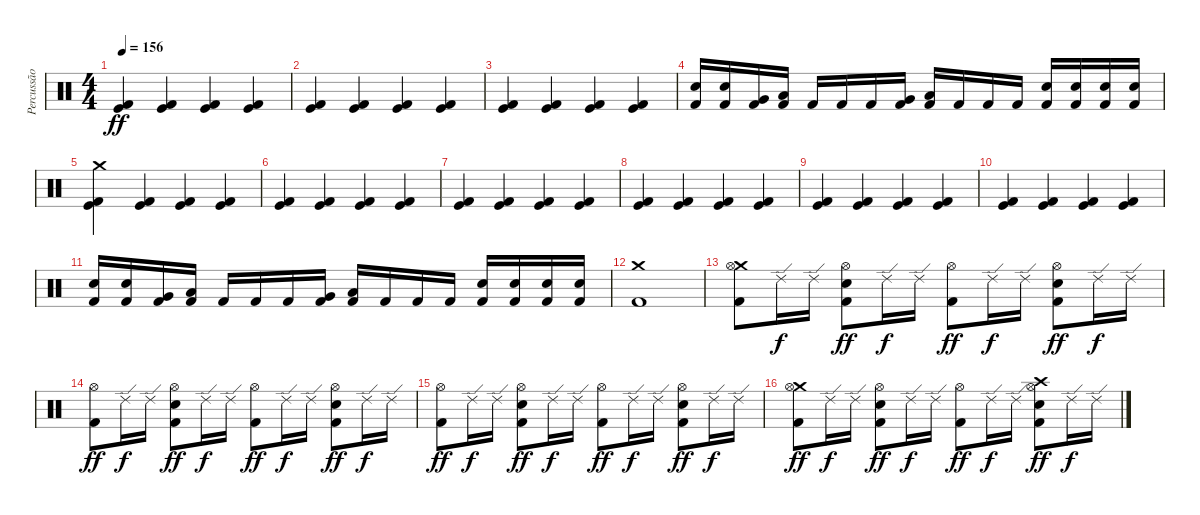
\track ("Percussão" "Percussão") {instrument percussion}
\staff {score}
\articulation defaults
\ts (4 4)
\tempo 156
\clef neutral
\ks c
("Kick (hit)" "Kick (hit) 2").4{dy ff} ("Kick (hit)" "Kick (hit) 2").4 ("Kick (hit)" "Kick (hit) 2").4 ("Kick (hit)" "Kick (hit) 2").4 |
("Kick (hit)" "Kick (hit) 2").4 ("Kick (hit)" "Kick (hit) 2").4 ("Kick (hit)" "Kick (hit) 2").4 ("Kick (hit)" "Kick (hit) 2").4 |
("Kick (hit)" "Kick (hit) 2").4 ("Kick (hit)" "Kick (hit) 2").4 ("Kick (hit)" "Kick (hit) 2").4 ("Kick (hit)" "Kick (hit) 2").4 |
("Snare (hit) 2" "Kick (hit) 2").16 ("Snare (hit) 2" "Kick (hit) 2").16 ("Very Low Tom (hit)" "Kick (hit) 2").16 ("Low Floor Tom (hit)" "Kick (hit) 2").16 "Kick (hit) 2".16 "Kick (hit) 2".16 "Kick (hit) 2".16 ("Very Low Tom (hit)" "Kick (hit) 2").16 ("Low Floor Tom (hit)" "Kick (hit) 2").16 "Kick (hit) 2".16 "Kick (hit) 2".16 "Kick (hit) 2".16 ("Snare (hit) 2" "Kick (hit) 2").16 ("Snare (hit) 2" "Kick (hit) 2").16 ("Snare (hit) 2" "Kick (hit) 2").16 ("Snare (hit) 2" "Kick (hit) 2").16 |
("Crash medium (hit)" "Kick (hit)" "Kick (hit) 2").4 ("Kick (hit)" "Kick (hit) 2").4 ("Kick (hit)" "Kick (hit) 2").4 ("Kick (hit)" "Kick (hit) 2").4 |
("Kick (hit)" "Kick (hit) 2").4 ("Kick (hit)" "Kick (hit) 2").4 ("Kick (hit)" "Kick (hit) 2").4 ("Kick (hit)" "Kick (hit) 2").4 |
("Kick (hit)" "Kick (hit) 2").4 ("Kick (hit)" "Kick (hit) 2").4 ("Kick (hit)" "Kick (hit) 2").4 ("Kick (hit)" "Kick (hit) 2").4 |
("Kick (hit)" "Kick (hit) 2").4 ("Kick (hit)" "Kick (hit) 2").4 ("Kick (hit)" "Kick (hit) 2").4 ("Kick (hit)" "Kick (hit) 2").4 |
("Kick (hit)" "Kick (hit) 2").4 ("Kick (hit)" "Kick (hit) 2").4 ("Kick (hit)" "Kick (hit) 2").4 ("Kick (hit)" "Kick (hit) 2").4 |
("Kick (hit)" "Kick (hit) 2").4 ("Kick (hit)" "Kick (hit) 2").4 ("Kick (hit)" "Kick (hit) 2").4 ("Kick (hit)" "Kick (hit) 2").4 |
("Snare (hit) 2" "Kick (hit) 2").16 ("Snare (hit) 2" "Kick (hit) 2").16 ("Very Low Tom (hit)" "Kick (hit) 2").16 ("Low Floor Tom (hit)" "Kick (hit) 2").16 "Kick (hit) 2".16 "Kick (hit) 2".16 "Kick (hit) 2".16 ("Very Low Tom (hit)" "Kick (hit) 2").16 ("Low Floor Tom (hit)" "Kick (hit) 2").16 "Kick (hit) 2".16 "Kick (hit) 2".16 "Kick (hit) 2".16 ("Snare (hit) 2" "Kick (hit) 2").16 ("Snare (hit) 2" "Kick (hit) 2").16 ("Snare (hit) 2" "Kick (hit) 2").16 ("Snare (hit) 2" "Kick (hit) 2").16 |
("Crash medium (hit)" "Kick (hit) 2").1 |
("Crash medium (hit)" "Hi-Hat (open)" "Kick (hit) 2").8 "Ride (edge) 2".16{dy f} "Ride (edge) 2".16 ("Hi-Hat (open)" "Snare (hit) 2" "Kick (hit) 2").8{dy ff} "Ride (edge) 2".16{dy f} "Ride (edge) 2".16 ("Hi-Hat (open)" "Kick (hit) 2").8{dy ff} "Ride (edge) 2".16{dy f} "Ride (edge) 2".16 ("Hi-Hat (open)" "Snare (hit) 2" "Kick (hit) 2").8{dy ff} "Ride (edge) 2".16{dy f} "Ride (edge) 2".16 |
("Hi-Hat (open)" "Kick (hit) 2").8{dy ff} "Ride (edge) 2".16{dy f} "Ride (edge) 2".16 ("Hi-Hat (open)" "Snare (hit) 2" "Kick (hit) 2").8{dy ff} "Ride (edge) 2".16{dy f} "Ride (edge) 2".16 ("Hi-Hat (open)" "Kick (hit) 2").8{dy ff} "Ride (edge) 2".16{dy f} "Ride (edge) 2".16 ("Hi-Hat (open)" "Snare (hit) 2" "Kick (hit) 2").8{dy ff} "Ride (edge) 2".16{dy f} "Ride (edge) 2".16 |
("Hi-Hat (open)" "Kick (hit) 2").8{dy ff} "Ride (edge) 2".16{dy f} "Ride (edge) 2".16 ("Hi-Hat (open)" "Snare (hit) 2" "Kick (hit) 2").8{dy ff} "Ride (edge) 2".16{dy f} "Ride (edge) 2".16 ("Hi-Hat (open)" "Kick (hit) 2").8{dy ff} "Ride (edge) 2".16{dy f} "Ride (edge) 2".16 ("Hi-Hat (open)" "Snare (hit) 2" "Kick (hit) 2").8{dy ff} "Ride (edge) 2".16{dy f} "Ride (edge) 2".16 |
("Crash medium (hit)" "Hi-Hat (open)" "Kick (hit) 2").8{dy ff} "Ride (edge) 2".16{dy f} "Ride (edge) 2".16 ("Hi-Hat (open)" "Snare (hit) 2" "Kick (hit) 2").8{dy ff} "Ride (edge) 2".16{dy f} "Ride (edge) 2".16 ("Hi-Hat (open)" "Kick (hit) 2").8{dy ff} "Ride (edge) 2".16{dy f} "Ride (edge) 2".16 ("Hi-Hat (open)" "Crash high (hit)" "Snare (hit) 2" "Kick (hit) 2").8{dy ff} "Ride (edge) 2".16{dy f} "Ride (edge) 2".16
